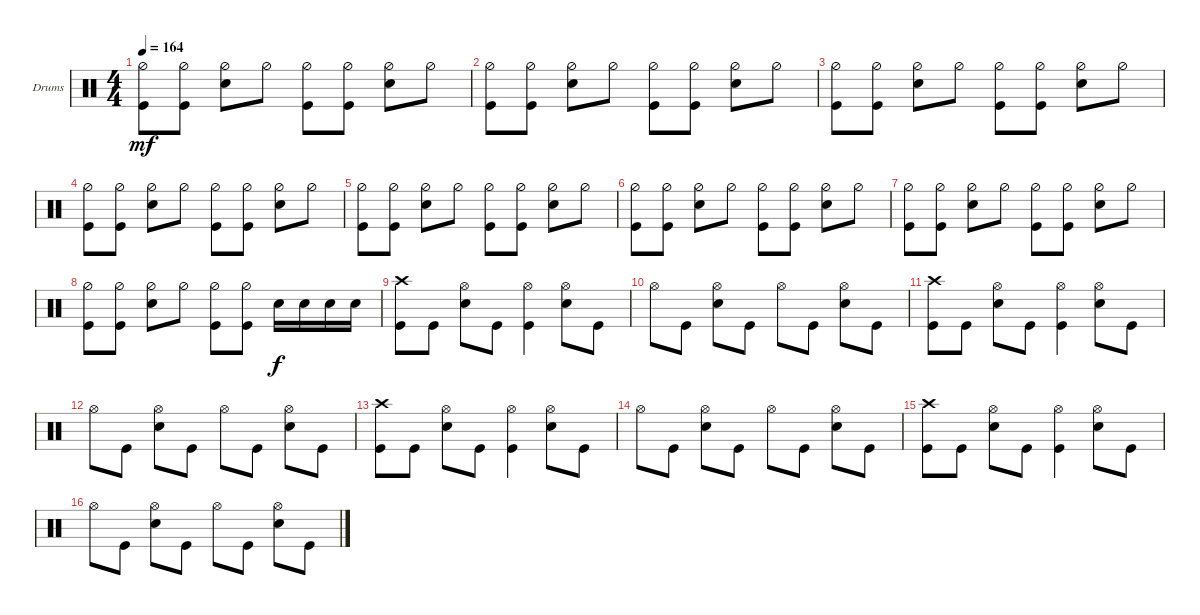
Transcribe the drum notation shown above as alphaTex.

\defaultSystemsLayout 4
\bracketExtendMode groupsimilarinstruments
\firstSystemTrackNameOrientation horizontal
\otherSystemsTrackNameOrientation horizontal
\track ("Drumkit" "Drums") {instrument percussion}
\staff {score}
\articulation defaults
\ts (4 4)
\tempo 164
\clef neutral
\ks c
("Kick (hit)" "Hi-Hat (half)").8{dy mf} ("Kick (hit)" "Hi-Hat (half)").8 ("Snare (hit) 2" "Hi-Hat (half)").8 "Hi-Hat (half)".8 ("Kick (hit)" "Hi-Hat (half)").8 ("Kick (hit)" "Hi-Hat (half)").8 ("Snare (hit) 2" "Hi-Hat (half)").8 "Hi-Hat (half)".8 |
("Kick (hit)" "Hi-Hat (half)").8 ("Kick (hit)" "Hi-Hat (half)").8 ("Snare (hit) 2" "Hi-Hat (half)").8 "Hi-Hat (half)".8 ("Kick (hit)" "Hi-Hat (half)").8 ("Kick (hit)" "Hi-Hat (half)").8 ("Snare (hit) 2" "Hi-Hat (half)").8 "Hi-Hat (half)".8 |
("Kick (hit)" "Hi-Hat (half)").8 ("Kick (hit)" "Hi-Hat (half)").8 ("Snare (hit) 2" "Hi-Hat (half)").8 "Hi-Hat (half)".8 ("Kick (hit)" "Hi-Hat (half)").8 ("Kick (hit)" "Hi-Hat (half)").8 ("Snare (hit) 2" "Hi-Hat (half)").8 "Hi-Hat (half)".8 |
("Kick (hit)" "Hi-Hat (half)").8 ("Kick (hit)" "Hi-Hat (half)").8 ("Snare (hit) 2" "Hi-Hat (half)").8 "Hi-Hat (half)".8 ("Kick (hit)" "Hi-Hat (half)").8 ("Kick (hit)" "Hi-Hat (half)").8 ("Snare (hit) 2" "Hi-Hat (half)").8 "Hi-Hat (half)".8 |
("Kick (hit)" "Hi-Hat (half)").8 ("Kick (hit)" "Hi-Hat (half)").8 ("Snare (hit) 2" "Hi-Hat (half)").8 "Hi-Hat (half)".8 ("Kick (hit)" "Hi-Hat (half)").8 ("Kick (hit)" "Hi-Hat (half)").8 ("Snare (hit) 2" "Hi-Hat (half)").8 "Hi-Hat (half)".8 |
("Kick (hit)" "Hi-Hat (half)").8 ("Kick (hit)" "Hi-Hat (half)").8 ("Snare (hit) 2" "Hi-Hat (half)").8 "Hi-Hat (half)".8 ("Kick (hit)" "Hi-Hat (half)").8 ("Kick (hit)" "Hi-Hat (half)").8 ("Snare (hit) 2" "Hi-Hat (half)").8 "Hi-Hat (half)".8 |
("Kick (hit)" "Hi-Hat (half)").8 ("Kick (hit)" "Hi-Hat (half)").8 ("Snare (hit) 2" "Hi-Hat (half)").8 "Hi-Hat (half)".8 ("Kick (hit)" "Hi-Hat (half)").8 ("Kick (hit)" "Hi-Hat (half)").8 ("Snare (hit) 2" "Hi-Hat (half)").8 "Hi-Hat (half)".8 |
("Kick (hit)" "Hi-Hat (half)").8 ("Kick (hit)" "Hi-Hat (half)").8 ("Snare (hit) 2" "Hi-Hat (half)").8 "Hi-Hat (half)".8 ("Kick (hit)" "Hi-Hat (half)").8 ("Kick (hit)" "Hi-Hat (half)").8 "Snare (hit) 2".16{dy f} "Snare (hit) 2".16 "Snare (hit) 2".16 "Snare (hit) 2".16 |
("Kick (hit)" "Crash high (hit)").8 "Kick (hit)".8 ("Snare (hit) 2" "Hi-Hat (open)").8 "Kick (hit)".8 ("Kick (hit)" "Hi-Hat (open)").4 ("Snare (hit) 2" "Hi-Hat (open)").8 "Kick (hit)".8 |
"Hi-Hat (open)".8 "Kick (hit)".8 ("Snare (hit) 2" "Hi-Hat (open)").8 "Kick (hit)".8 "Hi-Hat (open)".8 "Kick (hit)".8 ("Snare (hit) 2" "Hi-Hat (open)").8 "Kick (hit)".8 |
("Kick (hit)" "Crash high (hit)").8 "Kick (hit)".8 ("Snare (hit) 2" "Hi-Hat (open)").8 "Kick (hit)".8 ("Kick (hit)" "Hi-Hat (open)").4 ("Snare (hit) 2" "Hi-Hat (open)").8 "Kick (hit)".8 |
"Hi-Hat (open)".8 "Kick (hit)".8 ("Snare (hit) 2" "Hi-Hat (open)").8 "Kick (hit)".8 "Hi-Hat (open)".8 "Kick (hit)".8 ("Snare (hit) 2" "Hi-Hat (open)").8 "Kick (hit)".8 |
("Kick (hit)" "Crash high (hit)").8 "Kick (hit)".8 ("Snare (hit) 2" "Hi-Hat (open)").8 "Kick (hit)".8 ("Kick (hit)" "Hi-Hat (open)").4 ("Snare (hit) 2" "Hi-Hat (open)").8 "Kick (hit)".8 |
"Hi-Hat (open)".8 "Kick (hit)".8 ("Snare (hit) 2" "Hi-Hat (open)").8 "Kick (hit)".8 "Hi-Hat (open)".8 "Kick (hit)".8 ("Snare (hit) 2" "Hi-Hat (open)").8 "Kick (hit)".8 |
("Kick (hit)" "Crash high (hit)").8 "Kick (hit)".8 ("Snare (hit) 2" "Hi-Hat (open)").8 "Kick (hit)".8 ("Kick (hit)" "Hi-Hat (open)").4 ("Snare (hit) 2" "Hi-Hat (open)").8 "Kick (hit)".8 |
"Hi-Hat (open)".8 "Kick (hit)".8 ("Snare (hit) 2" "Hi-Hat (open)").8 "Kick (hit)".8 "Hi-Hat (open)".8 "Kick (hit)".8 ("Snare (hit) 2" "Hi-Hat (open)").8 "Kick (hit)".8
